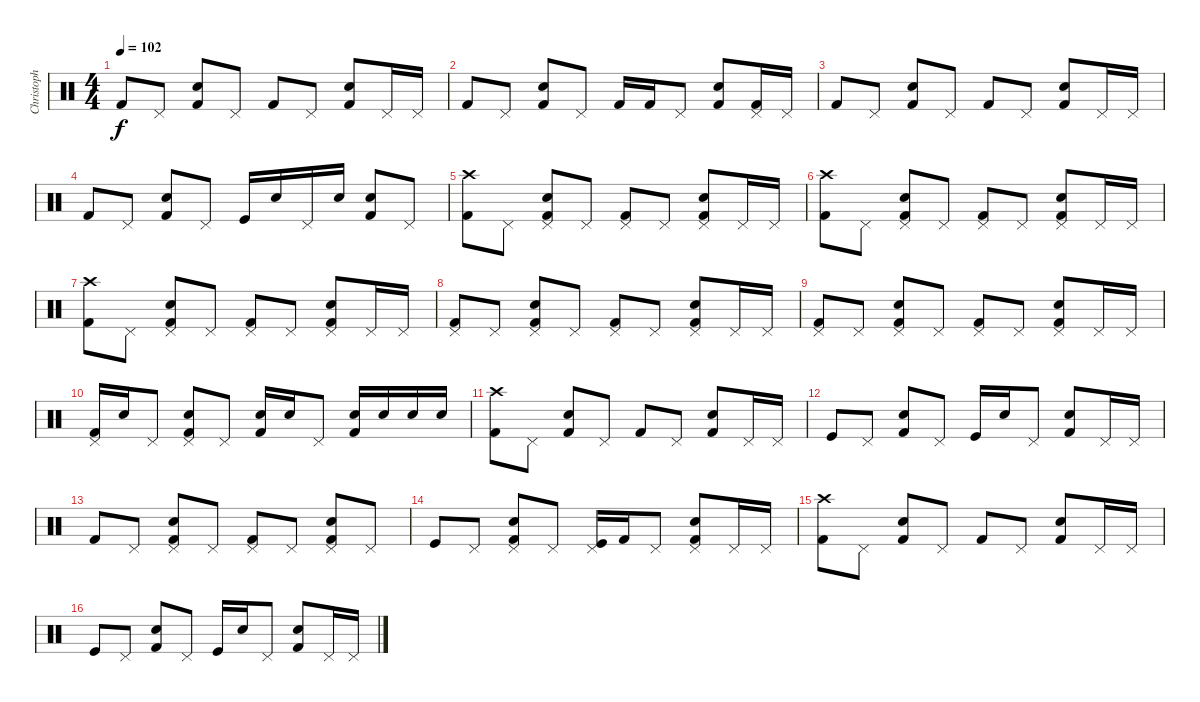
\track ("Christoph Schneider" "Christoph ") {instrument percussion}
\staff {score}
\articulation defaults
\ts (4 4)
\tempo 102
\clef neutral
\ks c "Kick (hit) 2".8{dy f} "Pedal Hi-Hat (hit)".8
("Snare (hit) 2" "Kick (hit) 2").8 "Pedal Hi-Hat (hit)".8 "Kick (hit) 2".8 "Pedal Hi-Hat (hit)".8 ("Snare (hit) 2" "Kick (hit) 2").8 "Pedal Hi-Hat (hit)".16 "Pedal Hi-Hat (hit)".16 |
"Kick (hit) 2".8 "Pedal Hi-Hat (hit)".8 ("Snare (hit) 2" "Kick (hit) 2").8 "Pedal Hi-Hat (hit)".8 "Kick (hit) 2".16 "Kick (hit) 2".16 "Pedal Hi-Hat (hit)".8 ("Snare (hit) 2" "Kick (hit) 2").8 ("Pedal Hi-Hat (hit)" "Kick (hit) 2").16 "Pedal Hi-Hat (hit)".16 |
"Kick (hit) 2".8 "Pedal Hi-Hat (hit)".8 ("Snare (hit) 2" "Kick (hit) 2").8 "Pedal Hi-Hat (hit)".8 "Kick (hit) 2".8 "Pedal Hi-Hat (hit)".8 ("Snare (hit) 2" "Kick (hit) 2").8 "Pedal Hi-Hat (hit)".16 "Pedal Hi-Hat (hit)".16 |
"Kick (hit) 2".8 "Pedal Hi-Hat (hit)".8 ("Snare (hit) 2" "Kick (hit) 2").8 "Pedal Hi-Hat (hit)".8 "Kick (hit)".16 "Snare (hit) 2".16 "Pedal Hi-Hat (hit)".16 "Snare (hit) 2".16 ("Snare (hit) 2" "Kick (hit) 2").8 "Pedal Hi-Hat (hit)".8 |
("Crash high (hit)" "Kick (hit) 2").8 "Pedal Hi-Hat (hit)".8 ("Pedal Hi-Hat (hit)" "Snare (hit) 2" "Kick (hit) 2").8 "Pedal Hi-Hat (hit)".8 ("Pedal Hi-Hat (hit)" "Kick (hit) 2").8 "Pedal Hi-Hat (hit)".8 ("Pedal Hi-Hat (hit)" "Snare (hit) 2" "Kick (hit) 2").8 "Pedal Hi-Hat (hit)".16 "Pedal Hi-Hat (hit)".16 |
("Crash high (hit)" "Kick (hit) 2").8 "Pedal Hi-Hat (hit)".8 ("Pedal Hi-Hat (hit)" "Snare (hit) 2" "Kick (hit) 2").8 "Pedal Hi-Hat (hit)".8 ("Pedal Hi-Hat (hit)" "Kick (hit) 2").8 "Pedal Hi-Hat (hit)".8 ("Pedal Hi-Hat (hit)" "Snare (hit) 2" "Kick (hit) 2").8 "Pedal Hi-Hat (hit)".16 "Pedal Hi-Hat (hit)".16 |
("Crash high (hit)" "Kick (hit) 2").8 "Pedal Hi-Hat (hit)".8 ("Pedal Hi-Hat (hit)" "Snare (hit) 2" "Kick (hit) 2").8 "Pedal Hi-Hat (hit)".8 ("Pedal Hi-Hat (hit)" "Kick (hit) 2").8 "Pedal Hi-Hat (hit)".8 ("Pedal Hi-Hat (hit)" "Snare (hit) 2" "Kick (hit) 2").8 "Pedal Hi-Hat (hit)".16 "Pedal Hi-Hat (hit)".16 |
("Pedal Hi-Hat (hit)" "Kick (hit) 2").8 "Pedal Hi-Hat (hit)".8 ("Pedal Hi-Hat (hit)" "Snare (hit) 2" "Kick (hit) 2").8 "Pedal Hi-Hat (hit)".8 ("Pedal Hi-Hat (hit)" "Kick (hit) 2").8 "Pedal Hi-Hat (hit)".8 ("Pedal Hi-Hat (hit)" "Snare (hit) 2" "Kick (hit) 2").8 "Pedal Hi-Hat (hit)".16 "Pedal Hi-Hat (hit)".16 |
("Pedal Hi-Hat (hit)" "Kick (hit) 2").8 "Pedal Hi-Hat (hit)".8 ("Pedal Hi-Hat (hit)" "Snare (hit) 2" "Kick (hit) 2").8 "Pedal Hi-Hat (hit)".8 ("Pedal Hi-Hat (hit)" "Kick (hit) 2").8 "Pedal Hi-Hat (hit)".8 ("Pedal Hi-Hat (hit)" "Snare (hit) 2" "Kick (hit) 2").8 "Pedal Hi-Hat (hit)".16 "Pedal Hi-Hat (hit)".16 |
("Pedal Hi-Hat (hit)" "Kick (hit) 2").16 "Snare (hit) 2".16 "Pedal Hi-Hat (hit)".8 ("Pedal Hi-Hat (hit)" "Snare (hit) 2" "Kick (hit) 2").8 "Pedal Hi-Hat (hit)".8 ("Snare (hit) 2" "Kick (hit) 2").16 "Snare (hit) 2".16 "Pedal Hi-Hat (hit)".8 ("Snare (hit) 2" "Kick (hit) 2").16 "Snare (hit) 2".16 "Snare (hit) 2".16 "Snare (hit) 2".16 |
("Crash high (hit)" "Kick (hit) 2").8 "Pedal Hi-Hat (hit)".8 ("Snare (hit) 2" "Kick (hit) 2").8 "Pedal Hi-Hat (hit)".8 "Kick (hit) 2".8 "Pedal Hi-Hat (hit)".8 ("Snare (hit) 2" "Kick (hit) 2").8 "Pedal Hi-Hat (hit)".16 "Pedal Hi-Hat (hit)".16 |
"Kick (hit)".8 "Pedal Hi-Hat (hit)".8 ("Snare (hit) 2" "Kick (hit) 2").8 "Pedal Hi-Hat (hit)".8 "Kick (hit)".16 "Snare (hit) 2".16 "Pedal Hi-Hat (hit)".8 ("Snare (hit) 2" "Kick (hit) 2").8 "Pedal Hi-Hat (hit)".16 "Pedal Hi-Hat (hit)".16 |
"Kick (hit) 2".8 "Pedal Hi-Hat (hit)".8 ("Pedal Hi-Hat (hit)" "Snare (hit) 2" "Kick (hit) 2").8 "Pedal Hi-Hat (hit)".8 ("Pedal Hi-Hat (hit)" "Kick (hit) 2").8 "Pedal Hi-Hat (hit)".8 ("Pedal Hi-Hat (hit)" "Snare (hit) 2" "Kick (hit) 2").8 "Pedal Hi-Hat (hit)".8 |
"Kick (hit)".8 "Pedal Hi-Hat (hit)".8 ("Pedal Hi-Hat (hit)" "Snare (hit) 2" "Kick (hit) 2").8 "Pedal Hi-Hat (hit)".8 ("Pedal Hi-Hat (hit)" "Kick (hit)").16 "Kick (hit) 2".16 "Pedal Hi-Hat (hit)".8 ("Pedal Hi-Hat (hit)" "Kick (hit) 2" "Snare (hit) 2").8 "Pedal Hi-Hat (hit)".16 "Pedal Hi-Hat (hit)".16 |
("Crash high (hit)" "Kick (hit) 2").8 "Pedal Hi-Hat (hit)".8 ("Snare (hit) 2" "Kick (hit) 2").8 "Pedal Hi-Hat (hit)".8 "Kick (hit) 2".8 "Pedal Hi-Hat (hit)".8 ("Snare (hit) 2" "Kick (hit) 2").8 "Pedal Hi-Hat (hit)".16 "Pedal Hi-Hat (hit)".16 |
"Kick (hit)".8 "Pedal Hi-Hat (hit)".8 ("Snare (hit) 2" "Kick (hit) 2").8 "Pedal Hi-Hat (hit)".8 "Kick (hit)".16 "Snare (hit) 2".16 "Pedal Hi-Hat (hit)".8 ("Snare (hit) 2" "Kick (hit) 2").8 "Pedal Hi-Hat (hit)".16 "Pedal Hi-Hat (hit)".16
